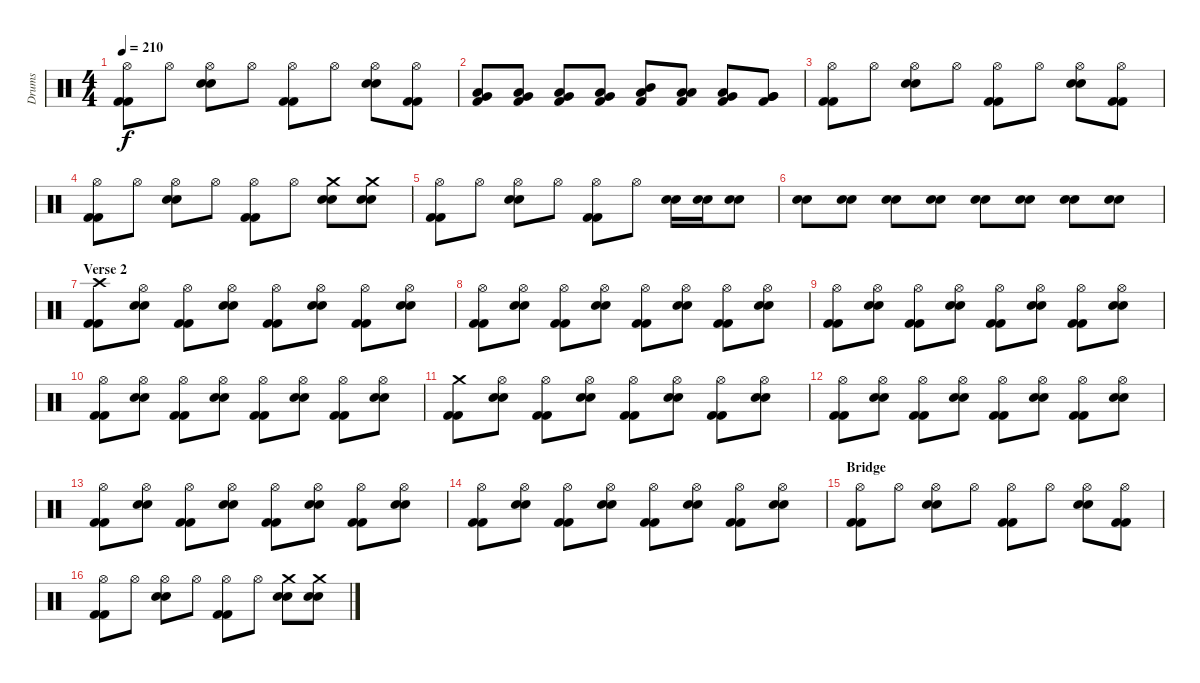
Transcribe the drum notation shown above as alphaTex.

\track ("Drums" "Drums") {instrument percussion}
\staff {score}
\articulation defaults
\ts (4 4)
\tempo 210
\clef neutral
\ks c
("Hi-Hat (open)" "Kick (hit) 2" "Kick (hit) 2").8{dy f} "Hi-Hat (open)".8 ("Hi-Hat (open)" "Snare (hit) 2" "Snare (hit) 2").8 "Hi-Hat (open)".8 ("Hi-Hat (open)" "Kick (hit) 2" "Kick (hit) 2").8 "Hi-Hat (open)".8 ("Hi-Hat (open)" "Snare (hit) 2" "Snare (hit) 2").8 ("Hi-Hat (open)" "Kick (hit) 2" "Kick (hit) 2").8 |
("Low Tom (hit)" "Very Low Tom (hit)" "Kick (hit) 2").8 ("Low Tom (hit)" "Very Low Tom (hit)" "Kick (hit) 2").8 ("Low Tom (hit)" "Very Low Tom (hit)" "Kick (hit) 2").8 ("Low Tom (hit)" "Very Low Tom (hit)" "Kick (hit) 2").8 ("Mid Tom (hit)" "Low Tom (hit)" "Kick (hit) 2").8 ("Low Tom (hit)" "Low Tom (hit)" "Kick (hit) 2").8 ("Very Low Tom (hit)" "Low Tom (hit)" "Kick (hit) 2").8 ("Very Low Tom (hit)" "Very Low Tom (hit)" "Kick (hit) 2").8 |
("Hi-Hat (open)" "Kick (hit) 2" "Kick (hit) 2").8 "Hi-Hat (open)".8 ("Hi-Hat (open)" "Snare (hit) 2" "Snare (hit) 2").8 "Hi-Hat (open)".8 ("Hi-Hat (open)" "Kick (hit) 2" "Kick (hit) 2").8 "Hi-Hat (open)".8 ("Hi-Hat (open)" "Snare (hit) 2" "Snare (hit) 2").8 ("Hi-Hat (open)" "Kick (hit) 2" "Kick (hit) 2").8 |
("Hi-Hat (open)" "Kick (hit) 2" "Kick (hit) 2").8 "Hi-Hat (open)".8 ("Hi-Hat (open)" "Snare (hit) 2" "Snare (hit) 2").8 "Hi-Hat (open)".8 ("Hi-Hat (open)" "Kick (hit) 2" "Kick (hit) 2").8 "Hi-Hat (open)".8 ("Crash medium (hit)" "Snare (hit) 2" "Snare (hit) 2").8 ("Crash medium (hit)" "Snare (hit) 2" "Snare (hit) 2").8 |
("Hi-Hat (open)" "Kick (hit) 2" "Kick (hit) 2").8 "Hi-Hat (open)".8 ("Hi-Hat (open)" "Snare (hit) 2" "Snare (hit) 2").8 "Hi-Hat (open)".8 ("Hi-Hat (open)" "Kick (hit) 2" "Kick (hit) 2").8 "Hi-Hat (open)".8 ("Snare (hit) 2" "Snare (hit) 2").16 ("Snare (hit) 2" "Snare (hit) 2").16 ("Snare (hit) 2" "Snare (hit) 2").8 |
("Snare (hit) 2" "Snare (hit) 2").8 ("Snare (hit) 2" "Snare (hit) 2").8 ("Snare (hit) 2" "Snare (hit) 2").8 ("Snare (hit) 2" "Snare (hit) 2").8 ("Snare (hit) 2" "Snare (hit) 2").8 ("Snare (hit) 2" "Snare (hit) 2").8 ("Snare (hit) 2" "Snare (hit) 2").8 ("Snare (hit) 2" "Snare (hit) 2").8 |
\section ("" "Verse 2")
("Crash high (hit)" "Kick (hit) 2" "Kick (hit) 2").8 ("Hi-Hat (open)" "Snare (hit) 2" "Snare (hit) 2").8 ("Hi-Hat (open)" "Kick (hit) 2" "Kick (hit) 2").8 ("Hi-Hat (open)" "Snare (hit) 2" "Snare (hit) 2").8 ("Hi-Hat (open)" "Kick (hit) 2" "Kick (hit) 2").8 ("Hi-Hat (open)" "Snare (hit) 2" "Snare (hit) 2").8 ("Hi-Hat (open)" "Kick (hit) 2" "Kick (hit) 2").8 ("Hi-Hat (open)" "Snare (hit) 2" "Snare (hit) 2").8 |
("Hi-Hat (open)" "Kick (hit) 2" "Kick (hit) 2").8 ("Hi-Hat (open)" "Snare (hit) 2" "Snare (hit) 2").8 ("Hi-Hat (open)" "Kick (hit) 2" "Kick (hit) 2").8 ("Hi-Hat (open)" "Snare (hit) 2" "Snare (hit) 2").8 ("Hi-Hat (open)" "Kick (hit) 2" "Kick (hit) 2").8 ("Hi-Hat (open)" "Snare (hit) 2" "Snare (hit) 2").8 ("Hi-Hat (open)" "Kick (hit) 2" "Kick (hit) 2").8 ("Hi-Hat (open)" "Snare (hit) 2" "Snare (hit) 2").8 |
("Hi-Hat (open)" "Kick (hit) 2" "Kick (hit) 2").8 ("Hi-Hat (open)" "Snare (hit) 2" "Snare (hit) 2").8 ("Hi-Hat (open)" "Kick (hit) 2" "Kick (hit) 2").8 ("Hi-Hat (open)" "Snare (hit) 2" "Snare (hit) 2").8 ("Hi-Hat (open)" "Kick (hit) 2" "Kick (hit) 2").8 ("Hi-Hat (open)" "Snare (hit) 2" "Snare (hit) 2").8 ("Hi-Hat (open)" "Kick (hit) 2" "Kick (hit) 2").8 ("Hi-Hat (open)" "Snare (hit) 2" "Snare (hit) 2").8 |
("Hi-Hat (open)" "Kick (hit) 2" "Kick (hit) 2").8 ("Hi-Hat (open)" "Snare (hit) 2" "Snare (hit) 2").8 ("Hi-Hat (open)" "Kick (hit) 2" "Kick (hit) 2").8 ("Hi-Hat (open)" "Snare (hit) 2" "Snare (hit) 2").8 ("Hi-Hat (open)" "Kick (hit) 2" "Kick (hit) 2").8 ("Hi-Hat (open)" "Snare (hit) 2" "Snare (hit) 2").8 ("Hi-Hat (open)" "Kick (hit) 2" "Kick (hit) 2").8 ("Hi-Hat (open)" "Snare (hit) 2" "Snare (hit) 2").8 |
("Crash medium (hit)" "Kick (hit) 2" "Kick (hit) 2").8 ("Hi-Hat (open)" "Snare (hit) 2" "Snare (hit) 2").8 ("Hi-Hat (open)" "Kick (hit) 2" "Kick (hit) 2").8 ("Hi-Hat (open)" "Snare (hit) 2" "Snare (hit) 2").8 ("Hi-Hat (open)" "Kick (hit) 2" "Kick (hit) 2").8 ("Hi-Hat (open)" "Snare (hit) 2" "Snare (hit) 2").8 ("Hi-Hat (open)" "Kick (hit) 2" "Kick (hit) 2").8 ("Hi-Hat (open)" "Snare (hit) 2" "Snare (hit) 2").8 |
("Hi-Hat (open)" "Kick (hit) 2" "Kick (hit) 2").8 ("Hi-Hat (open)" "Snare (hit) 2" "Snare (hit) 2").8 ("Hi-Hat (open)" "Kick (hit) 2" "Kick (hit) 2").8 ("Hi-Hat (open)" "Snare (hit) 2" "Snare (hit) 2").8 ("Hi-Hat (open)" "Kick (hit) 2" "Kick (hit) 2").8 ("Hi-Hat (open)" "Snare (hit) 2" "Snare (hit) 2").8 ("Hi-Hat (open)" "Kick (hit) 2" "Kick (hit) 2").8 ("Hi-Hat (open)" "Snare (hit) 2" "Snare (hit) 2").8 |
("Hi-Hat (open)" "Kick (hit) 2" "Kick (hit) 2").8 ("Hi-Hat (open)" "Snare (hit) 2" "Snare (hit) 2").8 ("Hi-Hat (open)" "Kick (hit) 2" "Kick (hit) 2").8 ("Hi-Hat (open)" "Snare (hit) 2" "Snare (hit) 2").8 ("Hi-Hat (open)" "Kick (hit) 2" "Kick (hit) 2").8 ("Hi-Hat (open)" "Snare (hit) 2" "Snare (hit) 2").8 ("Hi-Hat (open)" "Kick (hit) 2" "Kick (hit) 2").8 ("Hi-Hat (open)" "Snare (hit) 2" "Snare (hit) 2").8 |
("Hi-Hat (open)" "Kick (hit) 2" "Kick (hit) 2").8 ("Hi-Hat (open)" "Snare (hit) 2" "Snare (hit) 2").8 ("Hi-Hat (open)" "Kick (hit) 2" "Kick (hit) 2").8 ("Hi-Hat (open)" "Snare (hit) 2" "Snare (hit) 2").8 ("Hi-Hat (open)" "Kick (hit) 2" "Kick (hit) 2").8 ("Hi-Hat (open)" "Snare (hit) 2" "Snare (hit) 2").8 ("Hi-Hat (open)" "Kick (hit) 2" "Kick (hit) 2").8 ("Hi-Hat (open)" "Snare (hit) 2" "Snare (hit) 2").8 |
\section ("" "Bridge")
("Hi-Hat (open)" "Kick (hit) 2" "Kick (hit) 2").8 "Hi-Hat (open)".8 ("Hi-Hat (open)" "Snare (hit) 2" "Snare (hit) 2").8 "Hi-Hat (open)".8 ("Hi-Hat (open)" "Kick (hit) 2" "Kick (hit) 2").8 "Hi-Hat (open)".8 ("Hi-Hat (open)" "Snare (hit) 2" "Snare (hit) 2").8 ("Hi-Hat (open)" "Kick (hit) 2" "Kick (hit) 2").8 |
("Hi-Hat (open)" "Kick (hit) 2" "Kick (hit) 2").8 "Hi-Hat (open)".8 ("Hi-Hat (open)" "Snare (hit) 2" "Snare (hit) 2").8 "Hi-Hat (open)".8 ("Hi-Hat (open)" "Kick (hit) 2" "Kick (hit) 2").8 "Hi-Hat (open)".8 ("Crash medium (hit)" "Snare (hit) 2" "Snare (hit) 2").8 ("Crash medium (hit)" "Snare (hit) 2" "Snare (hit) 2").8
